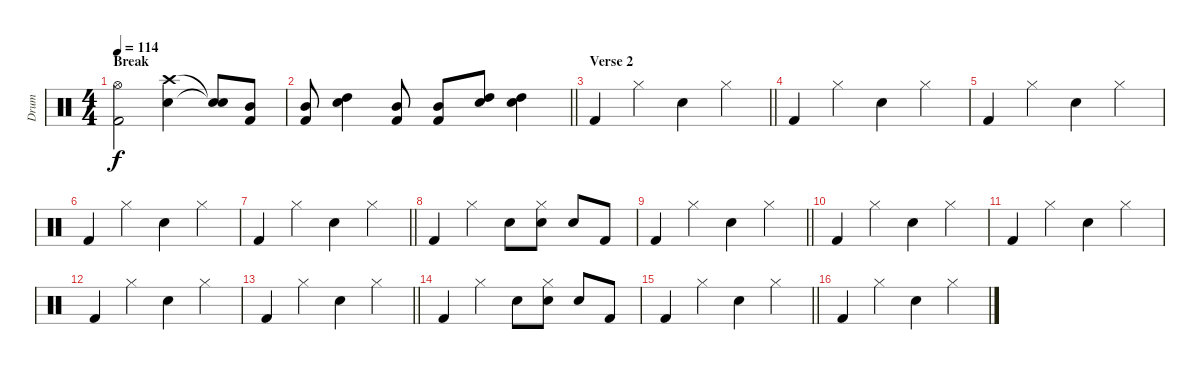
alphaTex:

\track ("Drum" "Drum") {instrument percussion}
\staff {score}
\articulation defaults
\ts (4 4)
\section ("" "Break")
\tempo 114
\clef neutral
\ks c
("Hi-Hat (open)" "Kick (hit) 2").2{dy f} ("Crash high (hit)" "Snare (hit) 2").4 ("Snare (hit)"{t} "Snare (hit)"{t}).8 ("Mid Tom (hit)" "Kick (hit) 2").8 |
\barLineRight lightlight
("Mid Tom (hit)" "Kick (hit) 2").8 ("High Tom (hit)" "Snare (hit) 2").4 ("Mid Tom (hit)" "Kick (hit) 2").8 ("Mid Tom (hit)" "Kick (hit) 2").8 ("High Tom (hit)" "Snare (hit) 2").8 ("High Tom (hit)" "Snare (hit) 2").4 |
\section ("" "Verse 2")
\barLineRight lightlight "Kick (hit) 2".4 "Hi-Hat (closed)".4 "Snare (hit) 2".4 "Hi-Hat (closed)".4
|
"Kick (hit) 2".4 "Hi-Hat (closed)".4 "Snare (hit) 2".4 "Hi-Hat (closed)".4 |
"Kick (hit) 2".4 "Hi-Hat (closed)".4 "Snare (hit) 2".4 "Hi-Hat (closed)".4 |
"Kick (hit) 2".4 "Hi-Hat (closed)".4 "Snare (hit) 2".4 "Hi-Hat (closed)".4 |
\barLineRight lightlight "Kick (hit) 2".4 "Hi-Hat (closed)".4 "Snare (hit) 2".4 "Hi-Hat (closed)".4
|
"Kick (hit) 2".4 "Hi-Hat (closed)".4 "Snare (hit) 2".8 ("Hi-Hat (closed)" "Snare (hit) 2").8 "Snare (hit) 2".8 "Kick (hit) 2".8 |
\barLineRight lightlight "Kick (hit) 2".4 "Hi-Hat (closed)".4 "Snare (hit) 2".4 "Hi-Hat (closed)".4
|
"Kick (hit) 2".4 "Hi-Hat (closed)".4 "Snare (hit) 2".4 "Hi-Hat (closed)".4 |
"Kick (hit) 2".4 "Hi-Hat (closed)".4 "Snare (hit) 2".4 "Hi-Hat (closed)".4 |
"Kick (hit) 2".4 "Hi-Hat (closed)".4 "Snare (hit) 2".4 "Hi-Hat (closed)".4 |
\barLineRight lightlight "Kick (hit) 2".4 "Hi-Hat (closed)".4 "Snare (hit) 2".4 "Hi-Hat (closed)".4
|
"Kick (hit) 2".4 "Hi-Hat (closed)".4 "Snare (hit) 2".8 ("Hi-Hat (closed)" "Snare (hit) 2").8 "Snare (hit) 2".8 "Kick (hit) 2".8 |
\barLineRight lightlight "Kick (hit) 2".4 "Hi-Hat (closed)".4 "Snare (hit) 2".4 "Hi-Hat (closed)".4
|
"Kick (hit) 2".4 "Hi-Hat (closed)".4 "Snare (hit) 2".4 "Hi-Hat (closed)".4
